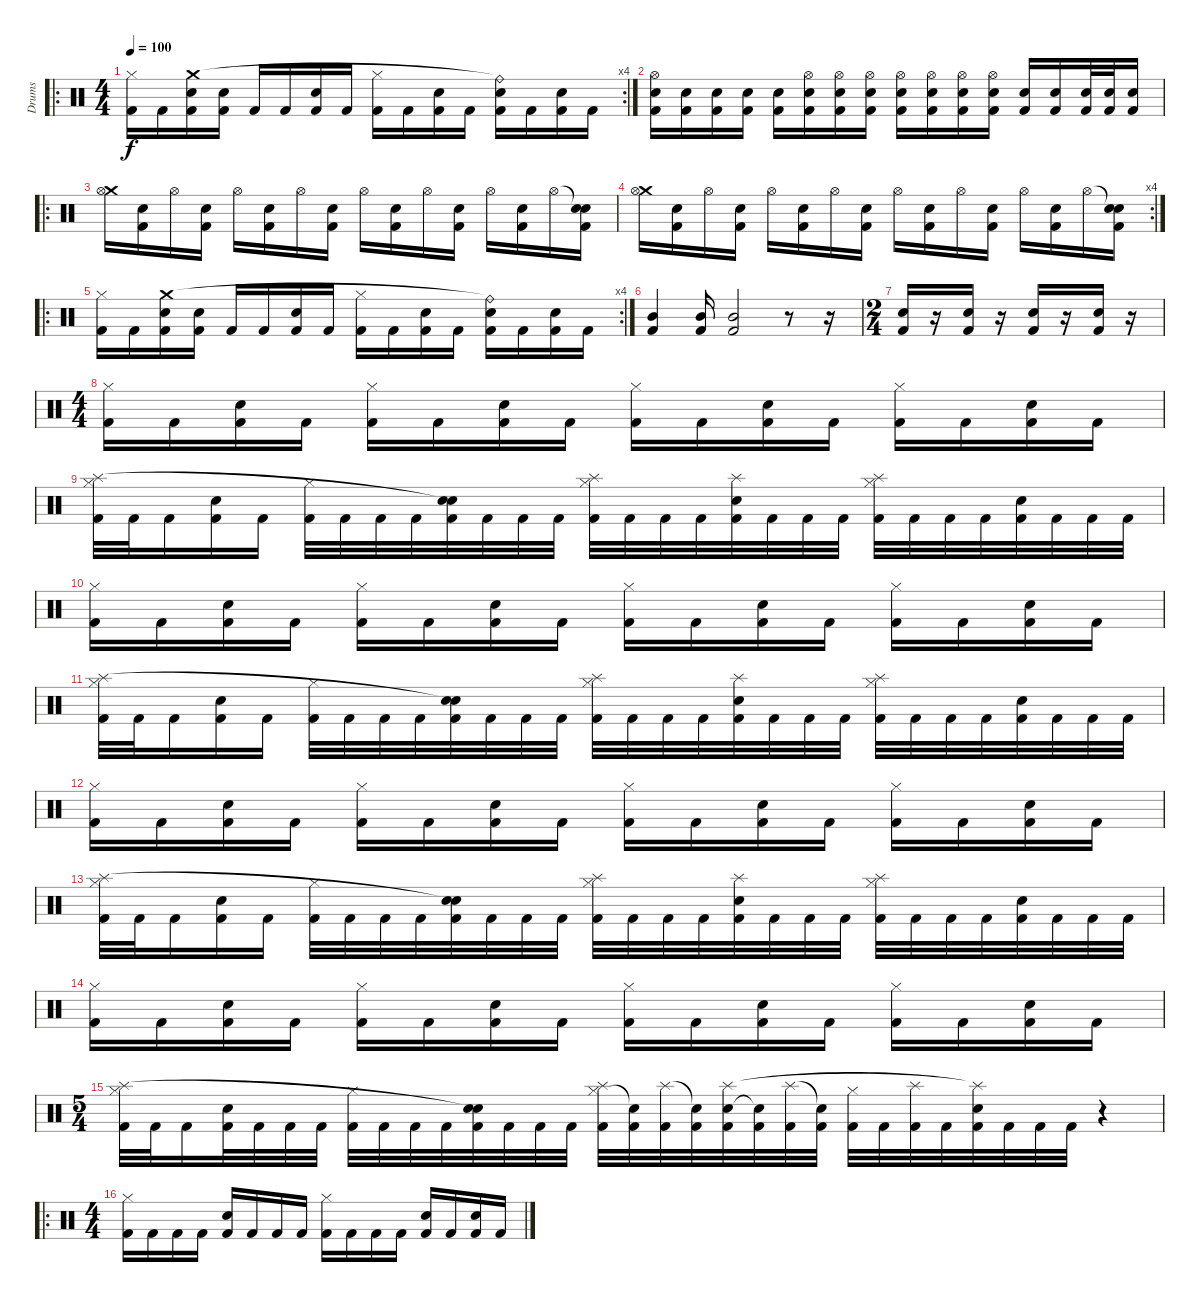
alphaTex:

\track ("Drums" "Drums") {instrument percussion}
\staff {score}
\articulation defaults
\ro
\rc 4
\ts (4 4)
\tempo 100
\clef neutral
\ks c
("Kick (hit) 2" "Hi-Hat (closed)").16{dy f} "Kick (hit) 2".16 ("Kick (hit) 2" "Snare (hit) 2" "Crash medium (hit)").16 ("Kick (hit) 2" "Snare (hit) 2").16 "Kick (hit) 2".16 "Kick (hit) 2".16 ("Kick (hit) 2" "Snare (hit) 2").16 "Kick (hit) 2".16 ("Kick (hit) 2" "Hi-Hat (closed)").16 "Kick (hit) 2".16 ("Kick (hit) 2" "Snare (hit) 2").16 "Kick (hit) 2".16 ("Kick (hit) 2" "Snare (hit) 2" "Ride (bell)"{t}).16 "Kick (hit) 2".16 ("Kick (hit) 2" "Snare (hit) 2").16 "Kick (hit) 2".16 |
("Hi-Hat (open)" "Snare (hit) 2" "Kick (hit) 2").16 ("Snare (hit) 2" "Kick (hit) 2").16 ("Snare (hit) 2" "Kick (hit) 2").16 ("Snare (hit) 2" "Kick (hit) 2").16 ("Snare (hit) 2" "Kick (hit) 2").16 ("Hi-Hat (open)" "Snare (hit) 2" "Kick (hit) 2").16 ("Hi-Hat (open)" "Snare (hit) 2" "Kick (hit) 2").16 ("Hi-Hat (open)" "Snare (hit) 2" "Kick (hit) 2").16 ("Hi-Hat (open)" "Snare (hit) 2" "Kick (hit) 2").16 ("Hi-Hat (open)" "Snare (hit) 2" "Kick (hit) 2").16 ("Hi-Hat (open)" "Snare (hit) 2" "Kick (hit) 2").16 ("Hi-Hat (open)" "Snare (hit) 2" "Kick (hit) 2").16 ("Snare (hit) 2" "Kick (hit) 2").16 ("Snare (hit) 2" "Kick (hit) 2").16 ("Snare (hit) 2" "Kick (hit) 2").32 ("Snare (hit) 2" "Kick (hit) 2").32 ("Snare (hit) 2" "Kick (hit) 2").16 |
\ro
("Crash medium (hit)" "Hi-Hat (open)").16 ("Snare (hit) 2" "Kick (hit) 2").16 "Hi-Hat (open)".16 ("Snare (hit) 2" "Kick (hit) 2").16 "Hi-Hat (open)".16 ("Snare (hit) 2" "Kick (hit) 2").16 "Hi-Hat (open)".16 ("Snare (hit) 2" "Kick (hit) 2").16 "Hi-Hat (open)".16 ("Snare (hit) 2" "Kick (hit) 2").16 "Hi-Hat (open)".16 ("Snare (hit) 2" "Kick (hit) 2").16 "Hi-Hat (open)".16 ("Snare (hit) 2" "Kick (hit) 2").16 "Hi-Hat (open)".16 ("Snare (hit)"{t} "Snare (hit) 2" "Kick (hit) 2").16 |
\rc 4
("Crash medium (hit)" "Hi-Hat (open)").16 ("Snare (hit) 2" "Kick (hit) 2").16 "Hi-Hat (open)".16 ("Snare (hit) 2" "Kick (hit) 2").16 "Hi-Hat (open)".16 ("Snare (hit) 2" "Kick (hit) 2").16 "Hi-Hat (open)".16 ("Snare (hit) 2" "Kick (hit) 2").16 "Hi-Hat (open)".16 ("Snare (hit) 2" "Kick (hit) 2").16 "Hi-Hat (open)".16 ("Snare (hit) 2" "Kick (hit) 2").16 "Hi-Hat (open)".16 ("Snare (hit) 2" "Kick (hit) 2").16 "Hi-Hat (open)".16 ("Snare (hit)"{t} "Snare (hit) 2" "Kick (hit) 2").16 |
\ro
\rc 4
("Kick (hit) 2" "Hi-Hat (closed)").16 "Kick (hit) 2".16 ("Kick (hit) 2" "Snare (hit) 2" "Crash medium (hit)").16 ("Kick (hit) 2" "Snare (hit) 2").16 "Kick (hit) 2".16 "Kick (hit) 2".16 ("Kick (hit) 2" "Snare (hit) 2").16 "Kick (hit) 2".16 ("Kick (hit) 2" "Hi-Hat (closed)").16 "Kick (hit) 2".16 ("Kick (hit) 2" "Snare (hit) 2").16 "Kick (hit) 2".16 ("Kick (hit) 2" "Snare (hit) 2" "Ride (bell)"{t}).16 "Kick (hit) 2".16 ("Kick (hit) 2" "Snare (hit) 2").16 "Kick (hit) 2".16 |
("Mid Tom (hit)" "Kick (hit) 2").4 ("Mid Tom (hit)" "Kick (hit) 2").16 ("Mid Tom (hit)" "Kick (hit) 2").2 r.8 r.16 |
\ts (2 4)
("Snare (hit) 2" "Kick (hit) 2").16 r.16 ("Snare (hit) 2" "Kick (hit) 2").16 r.16 ("Snare (hit) 2" "Kick (hit) 2").16 r.16 ("Snare (hit) 2" "Kick (hit) 2").16 r.16 |
\ts (4 4)
("Kick (hit) 2" "Hi-Hat (closed)").16 "Kick (hit) 2".16 ("Kick (hit) 2" "Snare (hit) 2").16 "Kick (hit) 2".16 ("Kick (hit) 2" "Hi-Hat (closed)").16 "Kick (hit) 2".16 ("Kick (hit) 2" "Snare (hit) 2").16 "Kick (hit) 2".16 ("Kick (hit) 2" "Hi-Hat (closed)").16 "Kick (hit) 2".16 ("Kick (hit) 2" "Snare (hit) 2").16 "Kick (hit) 2".16 ("Kick (hit) 2" "Hi-Hat (closed)").16 "Kick (hit) 2".16 ("Kick (hit) 2" "Snare (hit) 2").16 "Kick (hit) 2".16 |
("Kick (hit) 2" "Hi-Hat (closed)" "Splash (hit)").32 "Kick (hit) 2".32 "Kick (hit) 2".16 ("Kick (hit) 2" "Snare (hit) 2").16 "Kick (hit) 2".16 ("Kick (hit) 2" "Hi-Hat (closed)").32 "Kick (hit) 2".32 "Kick (hit) 2".32 "Kick (hit) 2".32 ("Kick (hit) 2" "Snare (hit) 2" "Snare (hit)"{t}).32 "Kick (hit) 2".32 "Kick (hit) 2".32 "Kick (hit) 2".32 ("Kick (hit) 2" "Hi-Hat (closed)" "Splash (hit)").32 "Kick (hit) 2".32 "Kick (hit) 2".32 "Kick (hit) 2".32 ("Kick (hit) 2" "Snare (hit) 2" "Splash (hit)").32 "Kick (hit) 2".32 "Kick (hit) 2".32 "Kick (hit) 2".32 ("Kick (hit) 2" "Hi-Hat (closed)" "Splash (hit)").32 "Kick (hit) 2".32 "Kick (hit) 2".32 "Kick (hit) 2".32 ("Kick (hit) 2" "Snare (hit) 2").32 "Kick (hit) 2".32 "Kick (hit) 2".32 "Kick (hit) 2".32 |
("Kick (hit) 2" "Hi-Hat (closed)").16 "Kick (hit) 2".16 ("Kick (hit) 2" "Snare (hit) 2").16 "Kick (hit) 2".16 ("Kick (hit) 2" "Hi-Hat (closed)").16 "Kick (hit) 2".16 ("Kick (hit) 2" "Snare (hit) 2").16 "Kick (hit) 2".16 ("Kick (hit) 2" "Hi-Hat (closed)").16 "Kick (hit) 2".16 ("Kick (hit) 2" "Snare (hit) 2").16 "Kick (hit) 2".16 ("Kick (hit) 2" "Hi-Hat (closed)").16 "Kick (hit) 2".16 ("Kick (hit) 2" "Snare (hit) 2").16 "Kick (hit) 2".16 |
("Kick (hit) 2" "Hi-Hat (closed)" "Splash (hit)").32 "Kick (hit) 2".32 "Kick (hit) 2".16 ("Kick (hit) 2" "Snare (hit) 2").16 "Kick (hit) 2".16 ("Kick (hit) 2" "Hi-Hat (closed)").32 "Kick (hit) 2".32 "Kick (hit) 2".32 "Kick (hit) 2".32 ("Kick (hit) 2" "Snare (hit) 2" "Snare (hit)"{t}).32 "Kick (hit) 2".32 "Kick (hit) 2".32 "Kick (hit) 2".32 ("Kick (hit) 2" "Hi-Hat (closed)" "Splash (hit)").32 "Kick (hit) 2".32 "Kick (hit) 2".32 "Kick (hit) 2".32 ("Kick (hit) 2" "Snare (hit) 2" "Splash (hit)").32 "Kick (hit) 2".32 "Kick (hit) 2".32 "Kick (hit) 2".32 ("Kick (hit) 2" "Hi-Hat (closed)" "Splash (hit)").32 "Kick (hit) 2".32 "Kick (hit) 2".32 "Kick (hit) 2".32 ("Kick (hit) 2" "Snare (hit) 2").32 "Kick (hit) 2".32 "Kick (hit) 2".32 "Kick (hit) 2".32 |
("Kick (hit) 2" "Hi-Hat (closed)").16 "Kick (hit) 2".16 ("Kick (hit) 2" "Snare (hit) 2").16 "Kick (hit) 2".16 ("Kick (hit) 2" "Hi-Hat (closed)").16 "Kick (hit) 2".16 ("Kick (hit) 2" "Snare (hit) 2").16 "Kick (hit) 2".16 ("Kick (hit) 2" "Hi-Hat (closed)").16 "Kick (hit) 2".16 ("Kick (hit) 2" "Snare (hit) 2").16 "Kick (hit) 2".16 ("Kick (hit) 2" "Hi-Hat (closed)").16 "Kick (hit) 2".16 ("Kick (hit) 2" "Snare (hit) 2").16 "Kick (hit) 2".16 |
("Kick (hit) 2" "Hi-Hat (closed)" "Splash (hit)").32 "Kick (hit) 2".32 "Kick (hit) 2".16 ("Kick (hit) 2" "Snare (hit) 2").16 "Kick (hit) 2".16 ("Kick (hit) 2" "Hi-Hat (closed)").32 "Kick (hit) 2".32 "Kick (hit) 2".32 "Kick (hit) 2".32 ("Kick (hit) 2" "Snare (hit) 2" "Snare (hit)"{t}).32 "Kick (hit) 2".32 "Kick (hit) 2".32 "Kick (hit) 2".32 ("Kick (hit) 2" "Hi-Hat (closed)" "Splash (hit)").32 "Kick (hit) 2".32 "Kick (hit) 2".32 "Kick (hit) 2".32 ("Kick (hit) 2" "Snare (hit) 2" "Splash (hit)").32 "Kick (hit) 2".32 "Kick (hit) 2".32 "Kick (hit) 2".32 ("Kick (hit) 2" "Hi-Hat (closed)" "Splash (hit)").32 "Kick (hit) 2".32 "Kick (hit) 2".32 "Kick (hit) 2".32 ("Kick (hit) 2" "Snare (hit) 2").32 "Kick (hit) 2".32 "Kick (hit) 2".32 "Kick (hit) 2".32 |
("Kick (hit) 2" "Hi-Hat (closed)").16 "Kick (hit) 2".16 ("Kick (hit) 2" "Snare (hit) 2").16 "Kick (hit) 2".16 ("Kick (hit) 2" "Hi-Hat (closed)").16 "Kick (hit) 2".16 ("Kick (hit) 2" "Snare (hit) 2").16 "Kick (hit) 2".16 ("Kick (hit) 2" "Hi-Hat (closed)").16 "Kick (hit) 2".16 ("Kick (hit) 2" "Snare (hit) 2").16 "Kick (hit) 2".16 ("Kick (hit) 2" "Hi-Hat (closed)").16 "Kick (hit) 2".16 ("Kick (hit) 2" "Snare (hit) 2").16 "Kick (hit) 2".16 |
\ts (5 4)
("Kick (hit) 2" "Hi-Hat (closed)" "Splash (hit)").32 "Kick (hit) 2".32 "Kick (hit) 2".16 ("Kick (hit) 2" "Snare (hit) 2").32 "Kick (hit) 2".32 "Kick (hit) 2".32 "Kick (hit) 2".32 ("Kick (hit) 2" "Hi-Hat (closed)").32 "Kick (hit) 2".32 "Kick (hit) 2".32 "Kick (hit) 2".32 ("Kick (hit) 2" "Snare (hit) 2" "Snare (hit)"{t}).32 "Kick (hit) 2".32 "Kick (hit) 2".32 "Kick (hit) 2".32 ("Kick (hit) 2" "Hi-Hat (closed)" "Splash (hit)").32 ("Kick (hit) 2" "Snare (hit)"{t}).32 ("Kick (hit) 2" "Splash (hit)").32 ("Kick (hit) 2" "Snare (hit)"{t}).32 ("Kick (hit) 2" "Snare (hit) 2" "Splash (hit)").32 ("Kick (hit) 2" "Snare (hit)"{t}).32 ("Kick (hit) 2" "Splash (hit)").32 ("Kick (hit) 2" "Snare (hit)"{t}).32 ("Kick (hit) 2" "Hi-Hat (closed)").32 "Kick (hit) 2".32 ("Kick (hit) 2" "Splash (hit)").32 "Kick (hit) 2".32 ("Kick (hit) 2" "Snare (hit) 2" "Splash (hit)"{t}).32 "Kick (hit) 2".32 "Kick (hit) 2".32 "Kick (hit) 2".32 r.4 |
\ro
\ts (4 4)
("Kick (hit) 2" "Hi-Hat (closed)").16 "Kick (hit) 2".16 "Kick (hit) 2".16 "Kick (hit) 2".16 ("Kick (hit) 2" "Snare (hit) 2").16 "Kick (hit) 2".16 "Kick (hit) 2".16 "Kick (hit) 2".16 ("Kick (hit) 2" "Hi-Hat (closed)").16 "Kick (hit) 2".16 "Kick (hit) 2".16 "Kick (hit) 2".16 ("Kick (hit) 2" "Snare (hit) 2").16 "Kick (hit) 2".16 ("Kick (hit) 2" "Snare (hit) 2").16 "Kick (hit) 2".16
